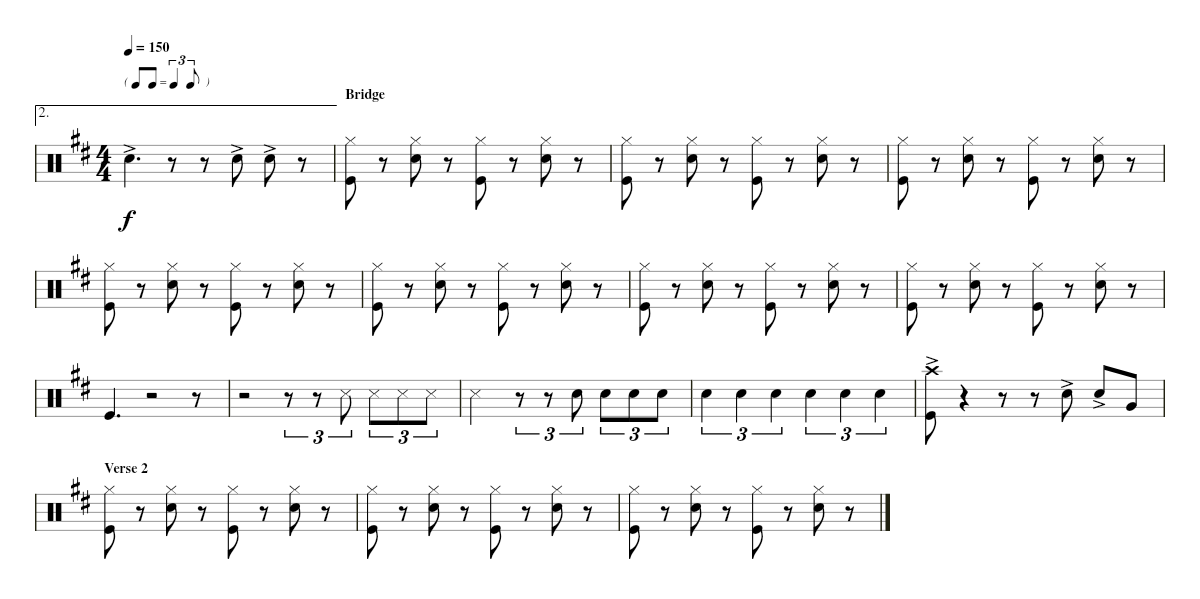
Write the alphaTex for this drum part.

\bracketExtendMode nobrackets
\singleTrackTrackNamePolicy hidden
\multiTrackTrackNamePolicy hidden
\firstSystemTrackNameMode fullname
\firstSystemTrackNameOrientation horizontal
\otherSystemsTrackNameOrientation horizontal
\defaultBarNumberDisplay Hide
\track ("Drumkit" "Drums") {instrument percussion}
\staff {score}
\articulation defaults
\ae 2
\ts (4 4)
\tf triplet8th
\tempo 150
\clef neutral
\ks d "Snare (hit) 2"{ac}.4{d dy f}
r.8 r.8 "Snare (hit) 2"{ac}.8 "Snare (hit) 2"{ac}.8 r.8 |
\section ("" "Bridge")
("Kick (hit)" "Hi-Hat (closed)").8 r.8 ("Snare (hit) 2" "Hi-Hat (closed)").8 r.8 ("Kick (hit)" "Hi-Hat (closed)").8 r.8 ("Snare (hit) 2" "Hi-Hat (closed)").8 r.8 |
("Kick (hit)" "Hi-Hat (closed)").8 r.8 ("Snare (hit) 2" "Hi-Hat (closed)").8 r.8 ("Kick (hit)" "Hi-Hat (closed)").8 r.8 ("Snare (hit) 2" "Hi-Hat (closed)").8 r.8 |
("Kick (hit)" "Hi-Hat (closed)").8 r.8 ("Snare (hit) 2" "Hi-Hat (closed)").8 r.8 ("Kick (hit)" "Hi-Hat (closed)").8 r.8 ("Snare (hit) 2" "Hi-Hat (closed)").8 r.8 |
("Kick (hit)" "Hi-Hat (closed)").8 r.8 ("Snare (hit) 2" "Hi-Hat (closed)").8 r.8 ("Kick (hit)" "Hi-Hat (closed)").8 r.8 ("Snare (hit) 2" "Hi-Hat (closed)").8 r.8 |
("Kick (hit)" "Hi-Hat (closed)").8 r.8 ("Snare (hit) 2" "Hi-Hat (closed)").8 r.8 ("Kick (hit)" "Hi-Hat (closed)").8 r.8 ("Snare (hit) 2" "Hi-Hat (closed)").8 r.8 |
("Kick (hit)" "Hi-Hat (closed)").8 r.8 ("Snare (hit) 2" "Hi-Hat (closed)").8 r.8 ("Kick (hit)" "Hi-Hat (closed)").8 r.8 ("Snare (hit) 2" "Hi-Hat (closed)").8 r.8 |
("Kick (hit)" "Hi-Hat (closed)").8 r.8 ("Snare (hit) 2" "Hi-Hat (closed)").8 r.8 ("Kick (hit)" "Hi-Hat (closed)").8 r.8 ("Snare (hit) 2" "Hi-Hat (closed)").8 r.8 |
"Kick (hit)".4{d} r.2 r.8 |
r.2 r.8{tu (3 2)} r.8{tu (3 2)} "Snare (side stick) 3".8{tu (3 2)} "Snare (side stick) 3".8{tu (3 2)} "Snare (side stick) 3".8{tu (3 2)} "Snare (side stick) 3".8{tu (3 2)} |
"Snare (side stick) 3".2 r.8{tu (3 2)} r.8{tu (3 2)} "Snare (hit) 2".8{tu (3 2)} "Snare (hit) 2".8{tu (3 2)} "Snare (hit) 2".8{tu (3 2)} "Snare (hit) 2".8{tu (3 2)} |
"Snare (hit) 2".4{tu (3 2)} "Snare (hit) 2".4{tu (3 2)} "Snare (hit) 2".4{tu (3 2)} "Snare (hit) 2".4{tu (3 2)} "Snare (hit) 2".4{tu (3 2)} "Snare (hit) 2".4{tu (3 2)} |
("Kick (hit)"{ac} "Crash high (hit)").8 r.4 r.8 r.8 "Snare (hit) 2"{ac}.8 "Snare (hit) 2"{ac}.8 "Very Low Tom (hit)".8 |
\section ("" "Verse 2")
("Kick (hit)" "Hi-Hat (closed)").8 r.8 ("Snare (hit) 2" "Hi-Hat (closed)").8 r.8 ("Kick (hit)" "Hi-Hat (closed)").8 r.8 ("Snare (hit) 2" "Hi-Hat (closed)").8 r.8 |
("Kick (hit)" "Hi-Hat (closed)").8 r.8 ("Snare (hit) 2" "Hi-Hat (closed)").8 r.8 ("Kick (hit)" "Hi-Hat (closed)").8 r.8 ("Snare (hit) 2" "Hi-Hat (closed)").8 r.8 |
("Kick (hit)" "Hi-Hat (closed)").8 r.8 ("Snare (hit) 2" "Hi-Hat (closed)").8 r.8 ("Kick (hit)" "Hi-Hat (closed)").8 r.8 ("Snare (hit) 2" "Hi-Hat (closed)").8 r.8
